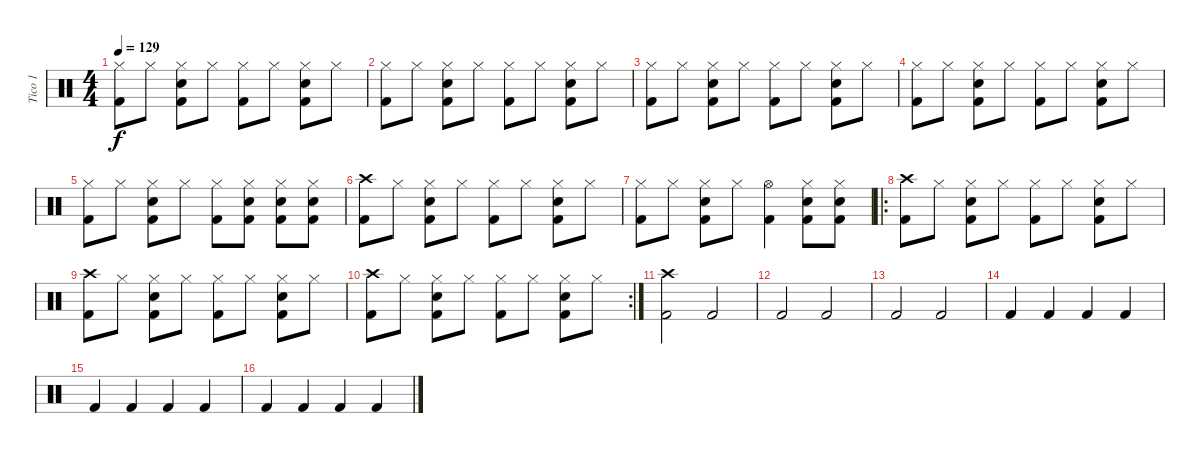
\track ("Tico 1" "Tico 1") {instrument percussion}
\staff {score}
\articulation defaults
\ts (4 4)
\tempo 129
\clef neutral
\ks c
("Hi-Hat (closed)" "Kick (hit) 2").8{dy f} "Hi-Hat (closed)".8 ("Hi-Hat (closed)" "Snare (hit) 2" "Kick (hit) 2").8 "Hi-Hat (closed)".8 ("Hi-Hat (closed)" "Kick (hit) 2").8 "Hi-Hat (closed)".8 ("Hi-Hat (closed)" "Snare (hit) 2" "Kick (hit) 2").8 "Hi-Hat (closed)".8 |
("Hi-Hat (closed)" "Kick (hit) 2").8 "Hi-Hat (closed)".8 ("Hi-Hat (closed)" "Snare (hit) 2" "Kick (hit) 2").8 "Hi-Hat (closed)".8 ("Hi-Hat (closed)" "Kick (hit) 2").8 "Hi-Hat (closed)".8 ("Hi-Hat (closed)" "Snare (hit) 2" "Kick (hit) 2").8 "Hi-Hat (closed)".8 |
("Hi-Hat (closed)" "Kick (hit) 2").8 "Hi-Hat (closed)".8 ("Hi-Hat (closed)" "Snare (hit) 2" "Kick (hit) 2").8 "Hi-Hat (closed)".8 ("Hi-Hat (closed)" "Kick (hit) 2").8 "Hi-Hat (closed)".8 ("Hi-Hat (closed)" "Snare (hit) 2" "Kick (hit) 2").8 "Hi-Hat (closed)".8 |
("Hi-Hat (closed)" "Kick (hit) 2").8 "Hi-Hat (closed)".8 ("Hi-Hat (closed)" "Snare (hit) 2" "Kick (hit) 2").8 "Hi-Hat (closed)".8 ("Hi-Hat (closed)" "Kick (hit) 2").8 "Hi-Hat (closed)".8 ("Hi-Hat (closed)" "Snare (hit) 2" "Kick (hit) 2").8 "Hi-Hat (closed)".8 |
("Hi-Hat (closed)" "Kick (hit) 2").8 "Hi-Hat (closed)".8 ("Hi-Hat (closed)" "Snare (hit) 2" "Kick (hit) 2").8 "Hi-Hat (closed)".8 ("Hi-Hat (closed)" "Kick (hit) 2").8 ("Hi-Hat (closed)" "Snare (hit) 2" "Kick (hit) 2").8 ("Hi-Hat (closed)" "Snare (hit) 2" "Kick (hit) 2").8 ("Hi-Hat (closed)" "Snare (hit) 2" "Kick (hit) 2").8 |
("Crash high (hit)" "Kick (hit) 2").8 "Hi-Hat (closed)".8 ("Hi-Hat (closed)" "Snare (hit) 2" "Kick (hit) 2").8 "Hi-Hat (closed)".8 ("Hi-Hat (closed)" "Kick (hit) 2").8 "Hi-Hat (closed)".8 ("Hi-Hat (closed)" "Snare (hit) 2" "Kick (hit) 2").8 "Hi-Hat (closed)".8 |
("Hi-Hat (closed)" "Kick (hit) 2").8 "Hi-Hat (closed)".8 ("Hi-Hat (closed)" "Snare (hit) 2" "Kick (hit) 2").8 "Hi-Hat (closed)".8 ("Hi-Hat (open)" "Kick (hit) 2").4 ("Hi-Hat (closed)" "Snare (hit) 2" "Kick (hit) 2").8 ("Hi-Hat (closed)" "Snare (hit) 2" "Kick (hit) 2").8 |
\ro
("Crash high (hit)" "Kick (hit) 2").8 "Hi-Hat (closed)".8 ("Hi-Hat (closed)" "Snare (hit) 2" "Kick (hit) 2").8 "Hi-Hat (closed)".8 ("Hi-Hat (closed)" "Kick (hit) 2").8 "Hi-Hat (closed)".8 ("Hi-Hat (closed)" "Snare (hit) 2" "Kick (hit) 2").8 "Hi-Hat (closed)".8 |
("Crash high (hit)" "Kick (hit) 2").8 "Hi-Hat (closed)".8 ("Hi-Hat (closed)" "Snare (hit) 2" "Kick (hit) 2").8 "Hi-Hat (closed)".8 ("Hi-Hat (closed)" "Kick (hit) 2").8 "Hi-Hat (closed)".8 ("Hi-Hat (closed)" "Snare (hit) 2" "Kick (hit) 2").8 "Hi-Hat (closed)".8 |
\rc 2
("Crash high (hit)" "Kick (hit) 2").8 "Hi-Hat (closed)".8 ("Hi-Hat (closed)" "Snare (hit) 2" "Kick (hit) 2").8 "Hi-Hat (closed)".8 ("Hi-Hat (closed)" "Kick (hit) 2").8 "Hi-Hat (closed)".8 ("Hi-Hat (closed)" "Snare (hit) 2" "Kick (hit) 2").8 "Hi-Hat (closed)".8 |
("Crash high (hit)" "Kick (hit) 2").2 "Kick (hit) 2".2 |
"Kick (hit) 2".2 "Kick (hit) 2".2 |
"Kick (hit) 2".2 "Kick (hit) 2".2 |
"Kick (hit) 2".4 "Kick (hit) 2".4 "Kick (hit) 2".4 "Kick (hit) 2".4 |
"Kick (hit) 2".4 "Kick (hit) 2".4 "Kick (hit) 2".4 "Kick (hit) 2".4 |
"Kick (hit) 2".4 "Kick (hit) 2".4 "Kick (hit) 2".4 "Kick (hit) 2".4
